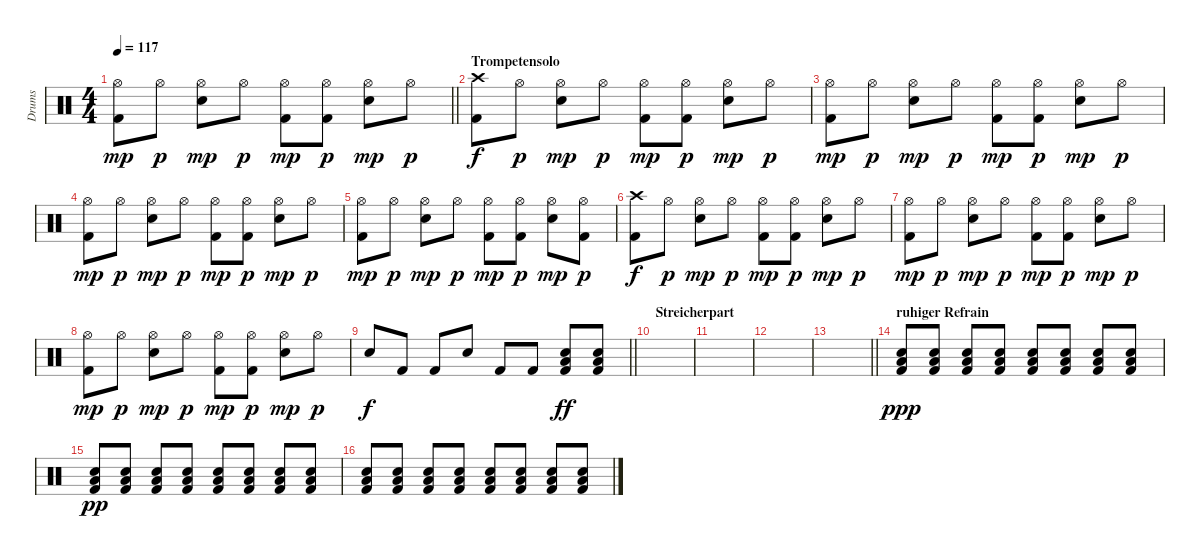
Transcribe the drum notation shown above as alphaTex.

\track ("Drums" "Drums") {instrument percussion}
\staff {score}
\articulation defaults
\ts (4 4)
\tempo 117
\clef neutral
\barLineRight lightlight
\ks c
("Hi-Hat (open)" "Kick (hit) 2").8{dy mp} "Hi-Hat (open)".8{dy p} ("Hi-Hat (open)" "Snare (hit) 2").8{dy mp} "Hi-Hat (open)".8{dy p} ("Hi-Hat (open)" "Kick (hit) 2").8{dy mp} ("Hi-Hat (open)" "Kick (hit) 2").8{dy p} ("Hi-Hat (open)" "Snare (hit) 2").8{dy mp} "Hi-Hat (open)".8{dy p} |
\section ("" "Trompetensolo")
("Crash high (hit)" "Kick (hit) 2").8{dy f} "Hi-Hat (open)".8{dy p} ("Hi-Hat (open)" "Snare (hit) 2").8{dy mp} "Hi-Hat (open)".8{dy p} ("Hi-Hat (open)" "Kick (hit) 2").8{dy mp} ("Hi-Hat (open)" "Kick (hit) 2").8{dy p} ("Hi-Hat (open)" "Snare (hit) 2").8{dy mp} "Hi-Hat (open)".8{dy p} |
("Hi-Hat (open)" "Kick (hit) 2").8{dy mp} "Hi-Hat (open)".8{dy p} ("Hi-Hat (open)" "Snare (hit) 2").8{dy mp} "Hi-Hat (open)".8{dy p} ("Hi-Hat (open)" "Kick (hit) 2").8{dy mp} ("Hi-Hat (open)" "Kick (hit) 2").8{dy p} ("Hi-Hat (open)" "Snare (hit) 2").8{dy mp} "Hi-Hat (open)".8{dy p} |
("Hi-Hat (open)" "Kick (hit) 2").8{dy mp} "Hi-Hat (open)".8{dy p} ("Hi-Hat (open)" "Snare (hit) 2").8{dy mp} "Hi-Hat (open)".8{dy p} ("Hi-Hat (open)" "Kick (hit) 2").8{dy mp} ("Hi-Hat (open)" "Kick (hit) 2").8{dy p} ("Hi-Hat (open)" "Snare (hit) 2").8{dy mp} "Hi-Hat (open)".8{dy p} |
("Hi-Hat (open)" "Kick (hit) 2").8{dy mp} "Hi-Hat (open)".8{dy p} ("Hi-Hat (open)" "Snare (hit) 2").8{dy mp} "Hi-Hat (open)".8{dy p} ("Hi-Hat (open)" "Kick (hit) 2").8{dy mp} ("Hi-Hat (open)" "Kick (hit) 2").8{dy p} ("Hi-Hat (open)" "Snare (hit) 2").8{dy mp} ("Hi-Hat (open)" "Kick (hit) 2").8{dy p} |
("Crash high (hit)" "Kick (hit) 2").8{dy f} "Hi-Hat (open)".8{dy p} ("Hi-Hat (open)" "Snare (hit) 2").8{dy mp} "Hi-Hat (open)".8{dy p} ("Hi-Hat (open)" "Kick (hit) 2").8{dy mp} ("Hi-Hat (open)" "Kick (hit) 2").8{dy p} ("Hi-Hat (open)" "Snare (hit) 2").8{dy mp} "Hi-Hat (open)".8{dy p} |
("Hi-Hat (open)" "Kick (hit) 2").8{dy mp} "Hi-Hat (open)".8{dy p} ("Hi-Hat (open)" "Snare (hit) 2").8{dy mp} "Hi-Hat (open)".8{dy p} ("Hi-Hat (open)" "Kick (hit) 2").8{dy mp} ("Hi-Hat (open)" "Kick (hit) 2").8{dy p} ("Hi-Hat (open)" "Snare (hit) 2").8{dy mp} "Hi-Hat (open)".8{dy p} |
("Hi-Hat (open)" "Kick (hit) 2").8{dy mp} "Hi-Hat (open)".8{dy p} ("Hi-Hat (open)" "Snare (hit) 2").8{dy mp} "Hi-Hat (open)".8{dy p} ("Hi-Hat (open)" "Kick (hit) 2").8{dy mp} ("Hi-Hat (open)" "Kick (hit) 2").8{dy p} ("Hi-Hat (open)" "Snare (hit) 2").8{dy mp} "Hi-Hat (open)".8{dy p} |
\barLineRight lightlight "Snare (hit) 2".8{dy f} "Kick (hit) 2".8 "Kick (hit) 2".8 "Snare (hit) 2".8 "Kick (hit) 2".8 "Kick (hit) 2".8
("Low Floor Tom (hit)" "Snare (hit) 2" "Kick (hit) 2").8{dy ff} ("Low Floor Tom (hit)" "Snare (hit) 2" "Kick (hit) 2").8 |
\section ("" "Streicherpart")
|
|
|
\barLineRight lightlight
|
\section ("" "ruhiger Refrain")
("Low Floor Tom (hit)" "Snare (hit) 2" "Kick (hit) 2").8{dy ppp} ("Low Floor Tom (hit)" "Snare (hit) 2" "Kick (hit) 2").8 ("Low Floor Tom (hit)" "Snare (hit) 2" "Kick (hit) 2").8 ("Low Floor Tom (hit)" "Snare (hit) 2" "Kick (hit) 2").8 ("Low Floor Tom (hit)" "Snare (hit) 2" "Kick (hit) 2").8 ("Low Floor Tom (hit)" "Snare (hit) 2" "Kick (hit) 2").8 ("Low Floor Tom (hit)" "Snare (hit) 2" "Kick (hit) 2").8 ("Low Floor Tom (hit)" "Snare (hit) 2" "Kick (hit) 2").8 |
("Low Floor Tom (hit)" "Snare (hit) 2" "Kick (hit) 2").8{dy pp} ("Low Floor Tom (hit)" "Snare (hit) 2" "Kick (hit) 2").8 ("Low Floor Tom (hit)" "Snare (hit) 2" "Kick (hit) 2").8 ("Low Floor Tom (hit)" "Snare (hit) 2" "Kick (hit) 2").8 ("Low Floor Tom (hit)" "Snare (hit) 2" "Kick (hit) 2").8 ("Low Floor Tom (hit)" "Snare (hit) 2" "Kick (hit) 2").8 ("Low Floor Tom (hit)" "Snare (hit) 2" "Kick (hit) 2").8 ("Low Floor Tom (hit)" "Snare (hit) 2" "Kick (hit) 2").8 |
("Low Floor Tom (hit)" "Snare (hit) 2" "Kick (hit) 2").8 ("Low Floor Tom (hit)" "Snare (hit) 2" "Kick (hit) 2").8 ("Low Floor Tom (hit)" "Snare (hit) 2" "Kick (hit) 2").8 ("Low Floor Tom (hit)" "Snare (hit) 2" "Kick (hit) 2").8 ("Low Floor Tom (hit)" "Snare (hit) 2" "Kick (hit) 2").8 ("Low Floor Tom (hit)" "Snare (hit) 2" "Kick (hit) 2").8 ("Low Floor Tom (hit)" "Snare (hit) 2" "Kick (hit) 2").8 ("Low Floor Tom (hit)" "Snare (hit) 2" "Kick (hit) 2").8
